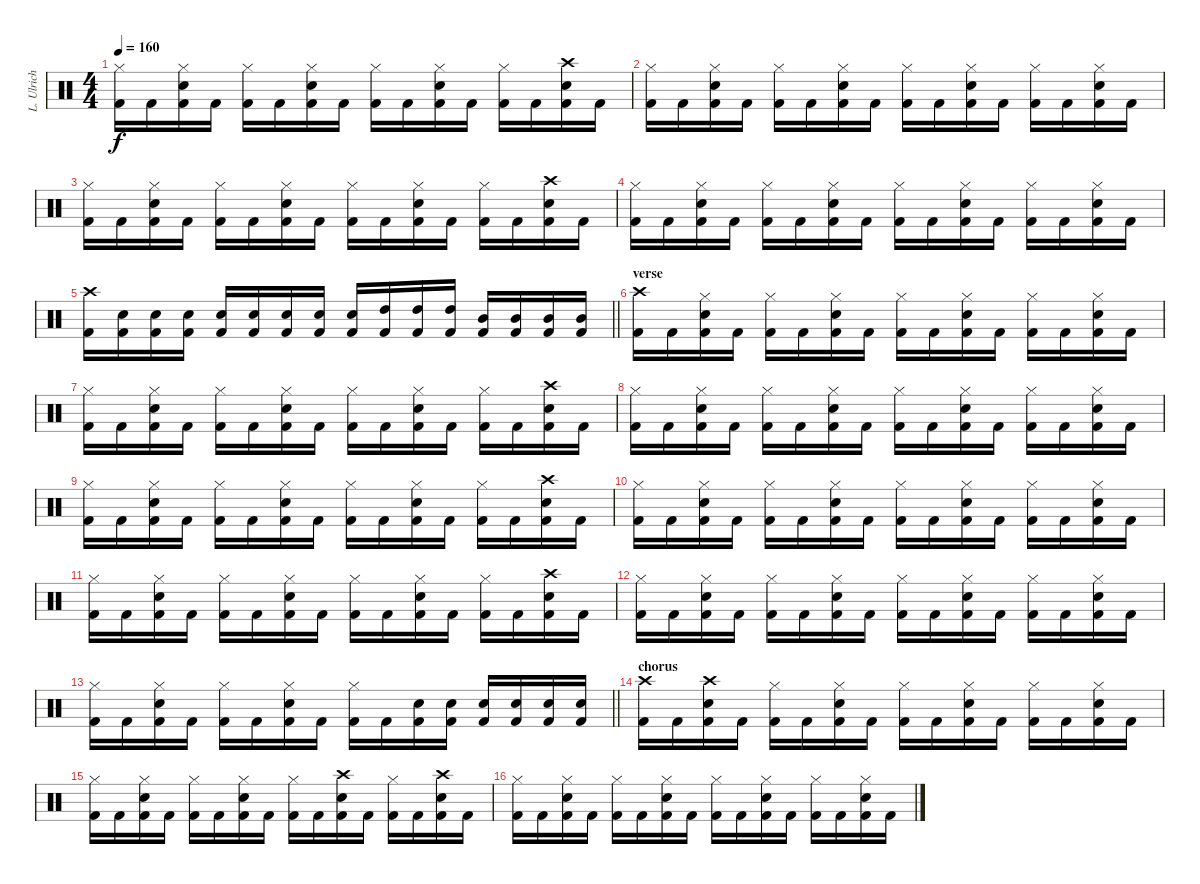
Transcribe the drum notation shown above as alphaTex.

\track ("L. Ulrich - Drums" "L. Ulrich ") {instrument percussion}
\staff {score}
\articulation defaults
\ts (4 4)
\tempo 160
\clef neutral
\ks c
("Hi-Hat (closed)" "Kick (hit) 2").16{dy f} "Kick (hit) 2".16 ("Hi-Hat (closed)" "Snare (hit) 2" "Kick (hit) 2").16 "Kick (hit) 2".16 ("Hi-Hat (closed)" "Kick (hit) 2").16 "Kick (hit) 2".16 ("Hi-Hat (closed)" "Snare (hit) 2" "Kick (hit) 2").16 "Kick (hit) 2".16 ("Hi-Hat (closed)" "Kick (hit) 2").16 "Kick (hit) 2".16 ("Hi-Hat (closed)" "Snare (hit) 2" "Kick (hit) 2").16 "Kick (hit) 2".16 ("Hi-Hat (closed)" "Kick (hit) 2").16 "Kick (hit) 2".16 ("Crash high (hit)" "Snare (hit) 2" "Kick (hit) 2").16 "Kick (hit) 2".16 |
("Hi-Hat (closed)" "Kick (hit) 2").16 "Kick (hit) 2".16 ("Hi-Hat (closed)" "Snare (hit) 2" "Kick (hit) 2").16 "Kick (hit) 2".16 ("Hi-Hat (closed)" "Kick (hit) 2").16 "Kick (hit) 2".16 ("Hi-Hat (closed)" "Snare (hit) 2" "Kick (hit) 2").16 "Kick (hit) 2".16 ("Hi-Hat (closed)" "Kick (hit) 2").16 "Kick (hit) 2".16 ("Hi-Hat (closed)" "Snare (hit) 2" "Kick (hit) 2").16 "Kick (hit) 2".16 ("Hi-Hat (closed)" "Kick (hit) 2").16 "Kick (hit) 2".16 ("Hi-Hat (closed)" "Snare (hit) 2" "Kick (hit) 2").16 "Kick (hit) 2".16 |
("Hi-Hat (closed)" "Kick (hit) 2").16 "Kick (hit) 2".16 ("Hi-Hat (closed)" "Snare (hit) 2" "Kick (hit) 2").16 "Kick (hit) 2".16 ("Hi-Hat (closed)" "Kick (hit) 2").16 "Kick (hit) 2".16 ("Hi-Hat (closed)" "Snare (hit) 2" "Kick (hit) 2").16 "Kick (hit) 2".16 ("Hi-Hat (closed)" "Kick (hit) 2").16 "Kick (hit) 2".16 ("Hi-Hat (closed)" "Snare (hit) 2" "Kick (hit) 2").16 "Kick (hit) 2".16 ("Hi-Hat (closed)" "Kick (hit) 2").16 "Kick (hit) 2".16 ("Crash high (hit)" "Snare (hit) 2" "Kick (hit) 2").16 "Kick (hit) 2".16 |
("Hi-Hat (closed)" "Kick (hit) 2").16 "Kick (hit) 2".16 ("Hi-Hat (closed)" "Snare (hit) 2" "Kick (hit) 2").16 "Kick (hit) 2".16 ("Hi-Hat (closed)" "Kick (hit) 2").16 "Kick (hit) 2".16 ("Hi-Hat (closed)" "Snare (hit) 2" "Kick (hit) 2").16 "Kick (hit) 2".16 ("Hi-Hat (closed)" "Kick (hit) 2").16 "Kick (hit) 2".16 ("Hi-Hat (closed)" "Snare (hit) 2" "Kick (hit) 2").16 "Kick (hit) 2".16 ("Hi-Hat (closed)" "Kick (hit) 2").16 "Kick (hit) 2".16 ("Hi-Hat (closed)" "Snare (hit) 2" "Kick (hit) 2").16 "Kick (hit) 2".16 |
\barLineRight lightlight
("Crash high (hit)" "Kick (hit) 2").16 ("Snare (hit) 2" "Kick (hit) 2").16 ("Snare (hit) 2" "Kick (hit) 2").16 ("Snare (hit) 2" "Kick (hit) 2").16 ("Snare (hit) 2" "Kick (hit) 2").16 ("Snare (hit) 2" "Kick (hit) 2").16 ("Snare (hit) 2" "Kick (hit) 2").16 ("Snare (hit) 2" "Kick (hit) 2").16 ("Snare (hit) 2" "Kick (hit) 2").16 ("High Tom (hit)" "Kick (hit) 2").16 ("High Tom (hit)" "Kick (hit) 2").16 ("High Tom (hit)" "Kick (hit) 2").16 ("Mid Tom (hit)" "Kick (hit) 2").16 ("Mid Tom (hit)" "Kick (hit) 2").16 ("Mid Tom (hit)" "Kick (hit) 2").16 ("Mid Tom (hit)" "Kick (hit) 2").16 |
\section ("" "verse")
("Crash high (hit)" "Kick (hit) 2").16 "Kick (hit) 2".16 ("Hi-Hat (closed)" "Snare (hit) 2" "Kick (hit) 2").16 "Kick (hit) 2".16 ("Hi-Hat (closed)" "Kick (hit) 2").16 "Kick (hit) 2".16 ("Hi-Hat (closed)" "Snare (hit) 2" "Kick (hit) 2").16 "Kick (hit) 2".16 ("Hi-Hat (closed)" "Kick (hit) 2").16 "Kick (hit) 2".16 ("Hi-Hat (closed)" "Snare (hit) 2" "Kick (hit) 2").16 "Kick (hit) 2".16 ("Hi-Hat (closed)" "Kick (hit) 2").16 "Kick (hit) 2".16 ("Hi-Hat (closed)" "Snare (hit) 2" "Kick (hit) 2").16 "Kick (hit) 2".16 |
("Hi-Hat (closed)" "Kick (hit) 2").16 "Kick (hit) 2".16 ("Hi-Hat (closed)" "Snare (hit) 2" "Kick (hit) 2").16 "Kick (hit) 2".16 ("Hi-Hat (closed)" "Kick (hit) 2").16 "Kick (hit) 2".16 ("Hi-Hat (closed)" "Snare (hit) 2" "Kick (hit) 2").16 "Kick (hit) 2".16 ("Hi-Hat (closed)" "Kick (hit) 2").16 "Kick (hit) 2".16 ("Hi-Hat (closed)" "Snare (hit) 2" "Kick (hit) 2").16 "Kick (hit) 2".16 ("Hi-Hat (closed)" "Kick (hit) 2").16 "Kick (hit) 2".16 ("Crash high (hit)" "Snare (hit) 2" "Kick (hit) 2").16 "Kick (hit) 2".16 |
("Hi-Hat (closed)" "Kick (hit) 2").16 "Kick (hit) 2".16 ("Hi-Hat (closed)" "Snare (hit) 2" "Kick (hit) 2").16 "Kick (hit) 2".16 ("Hi-Hat (closed)" "Kick (hit) 2").16 "Kick (hit) 2".16 ("Hi-Hat (closed)" "Snare (hit) 2" "Kick (hit) 2").16 "Kick (hit) 2".16 ("Hi-Hat (closed)" "Kick (hit) 2").16 "Kick (hit) 2".16 ("Hi-Hat (closed)" "Snare (hit) 2" "Kick (hit) 2").16 "Kick (hit) 2".16 ("Hi-Hat (closed)" "Kick (hit) 2").16 "Kick (hit) 2".16 ("Hi-Hat (closed)" "Snare (hit) 2" "Kick (hit) 2").16 "Kick (hit) 2".16 |
("Hi-Hat (closed)" "Kick (hit) 2").16 "Kick (hit) 2".16 ("Hi-Hat (closed)" "Snare (hit) 2" "Kick (hit) 2").16 "Kick (hit) 2".16 ("Hi-Hat (closed)" "Kick (hit) 2").16 "Kick (hit) 2".16 ("Hi-Hat (closed)" "Snare (hit) 2" "Kick (hit) 2").16 "Kick (hit) 2".16 ("Hi-Hat (closed)" "Kick (hit) 2").16 "Kick (hit) 2".16 ("Hi-Hat (closed)" "Snare (hit) 2" "Kick (hit) 2").16 "Kick (hit) 2".16 ("Hi-Hat (closed)" "Kick (hit) 2").16 "Kick (hit) 2".16 ("Crash high (hit)" "Snare (hit) 2" "Kick (hit) 2").16 "Kick (hit) 2".16 |
("Hi-Hat (closed)" "Kick (hit) 2").16 "Kick (hit) 2".16 ("Hi-Hat (closed)" "Snare (hit) 2" "Kick (hit) 2").16 "Kick (hit) 2".16 ("Hi-Hat (closed)" "Kick (hit) 2").16 "Kick (hit) 2".16 ("Hi-Hat (closed)" "Snare (hit) 2" "Kick (hit) 2").16 "Kick (hit) 2".16 ("Hi-Hat (closed)" "Kick (hit) 2").16 "Kick (hit) 2".16 ("Hi-Hat (closed)" "Snare (hit) 2" "Kick (hit) 2").16 "Kick (hit) 2".16 ("Hi-Hat (closed)" "Kick (hit) 2").16 "Kick (hit) 2".16 ("Hi-Hat (closed)" "Snare (hit) 2" "Kick (hit) 2").16 "Kick (hit) 2".16 |
("Hi-Hat (closed)" "Kick (hit) 2").16 "Kick (hit) 2".16 ("Hi-Hat (closed)" "Snare (hit) 2" "Kick (hit) 2").16 "Kick (hit) 2".16 ("Hi-Hat (closed)" "Kick (hit) 2").16 "Kick (hit) 2".16 ("Hi-Hat (closed)" "Snare (hit) 2" "Kick (hit) 2").16 "Kick (hit) 2".16 ("Hi-Hat (closed)" "Kick (hit) 2").16 "Kick (hit) 2".16 ("Hi-Hat (closed)" "Snare (hit) 2" "Kick (hit) 2").16 "Kick (hit) 2".16 ("Hi-Hat (closed)" "Kick (hit) 2").16 "Kick (hit) 2".16 ("Crash high (hit)" "Snare (hit) 2" "Kick (hit) 2").16 "Kick (hit) 2".16 |
("Hi-Hat (closed)" "Kick (hit) 2").16 "Kick (hit) 2".16 ("Hi-Hat (closed)" "Snare (hit) 2" "Kick (hit) 2").16 "Kick (hit) 2".16 ("Hi-Hat (closed)" "Kick (hit) 2").16 "Kick (hit) 2".16 ("Hi-Hat (closed)" "Snare (hit) 2" "Kick (hit) 2").16 "Kick (hit) 2".16 ("Hi-Hat (closed)" "Kick (hit) 2").16 "Kick (hit) 2".16 ("Hi-Hat (closed)" "Snare (hit) 2" "Kick (hit) 2").16 "Kick (hit) 2".16 ("Hi-Hat (closed)" "Kick (hit) 2").16 "Kick (hit) 2".16 ("Hi-Hat (closed)" "Snare (hit) 2" "Kick (hit) 2").16 "Kick (hit) 2".16 |
\barLineRight lightlight
("Hi-Hat (closed)" "Kick (hit) 2").16 "Kick (hit) 2".16 ("Hi-Hat (closed)" "Snare (hit) 2" "Kick (hit) 2").16 "Kick (hit) 2".16 ("Hi-Hat (closed)" "Kick (hit) 2").16 "Kick (hit) 2".16 ("Hi-Hat (closed)" "Snare (hit) 2" "Kick (hit) 2").16 "Kick (hit) 2".16 ("Hi-Hat (closed)" "Kick (hit) 2").16 "Kick (hit) 2".16 ("Snare (hit) 2" "Kick (hit) 2").16 ("Snare (hit) 2" "Kick (hit) 2").16 ("Snare (hit) 2" "Kick (hit) 2").16 ("Snare (hit) 2" "Kick (hit) 2").16 ("Snare (hit) 2" "Kick (hit) 2").16 ("Snare (hit) 2" "Kick (hit) 2").16 |
\section ("" "chorus")
("Crash high (hit)" "Kick (hit) 2").16 "Kick (hit) 2".16 ("Crash high (hit)" "Snare (hit) 2" "Kick (hit) 2").16 "Kick (hit) 2".16 ("Hi-Hat (closed)" "Kick (hit) 2").16 "Kick (hit) 2".16 ("Hi-Hat (closed)" "Snare (hit) 2" "Kick (hit) 2").16 "Kick (hit) 2".16 ("Hi-Hat (closed)" "Kick (hit) 2").16 "Kick (hit) 2".16 ("Hi-Hat (closed)" "Snare (hit) 2" "Kick (hit) 2").16 "Kick (hit) 2".16 ("Hi-Hat (closed)" "Kick (hit) 2").16 "Kick (hit) 2".16 ("Hi-Hat (closed)" "Snare (hit) 2" "Kick (hit) 2").16 "Kick (hit) 2".16 |
("Hi-Hat (closed)" "Kick (hit) 2").16 "Kick (hit) 2".16 ("Hi-Hat (closed)" "Snare (hit) 2" "Kick (hit) 2").16 "Kick (hit) 2".16 ("Hi-Hat (closed)" "Kick (hit) 2").16 "Kick (hit) 2".16 ("Hi-Hat (closed)" "Snare (hit) 2" "Kick (hit) 2").16 "Kick (hit) 2".16 ("Hi-Hat (closed)" "Kick (hit) 2").16 "Kick (hit) 2".16 ("Crash high (hit)" "Snare (hit) 2" "Kick (hit) 2").16 "Kick (hit) 2".16 ("Hi-Hat (closed)" "Kick (hit) 2").16 "Kick (hit) 2".16 ("Crash high (hit)" "Snare (hit) 2" "Kick (hit) 2").16 "Kick (hit) 2".16 |
("Hi-Hat (closed)" "Kick (hit) 2").16 "Kick (hit) 2".16 ("Hi-Hat (closed)" "Snare (hit) 2" "Kick (hit) 2").16 "Kick (hit) 2".16 ("Hi-Hat (closed)" "Kick (hit) 2").16 "Kick (hit) 2".16 ("Hi-Hat (closed)" "Snare (hit) 2" "Kick (hit) 2").16 "Kick (hit) 2".16 ("Hi-Hat (closed)" "Kick (hit) 2").16 "Kick (hit) 2".16 ("Hi-Hat (closed)" "Snare (hit) 2" "Kick (hit) 2").16 "Kick (hit) 2".16 ("Hi-Hat (closed)" "Kick (hit) 2").16 "Kick (hit) 2".16 ("Hi-Hat (closed)" "Snare (hit) 2" "Kick (hit) 2").16 "Kick (hit) 2".16
